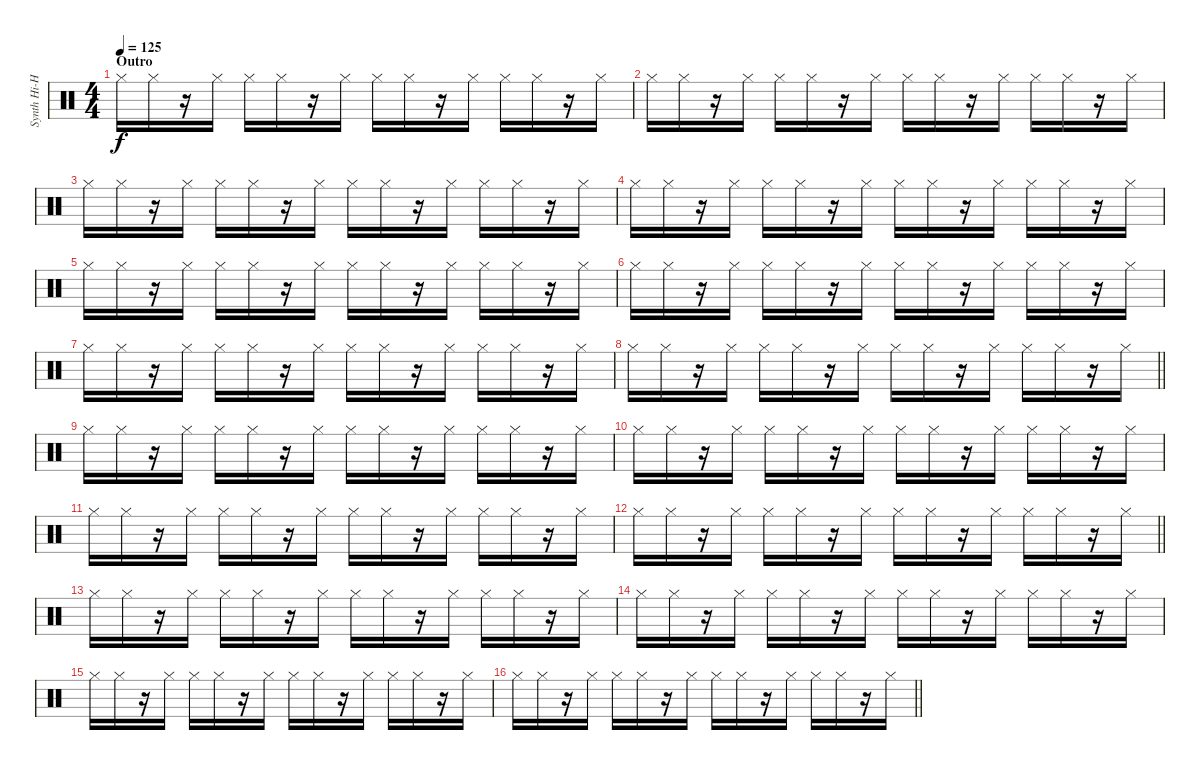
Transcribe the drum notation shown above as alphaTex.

\track ("Synth Hi-Hat (Gillian Gilbert)" "Synth Hi-H") {instrument percussion}
\staff {score}
\articulation defaults
\ts (4 4)
\section ("" "Outro")
\tempo 125
\clef neutral
\ks c "Hi-Hat (closed)".16{dy f} "Hi-Hat (closed)".16
r.16 "Hi-Hat (closed)".16 "Hi-Hat (closed)".16 "Hi-Hat (closed)".16 r.16 "Hi-Hat (closed)".16 "Hi-Hat (closed)".16 "Hi-Hat (closed)".16 r.16 "Hi-Hat (closed)".16 "Hi-Hat (closed)".16 "Hi-Hat (closed)".16 r.16 "Hi-Hat (closed)".16 |
"Hi-Hat (closed)".16 "Hi-Hat (closed)".16 r.16 "Hi-Hat (closed)".16 "Hi-Hat (closed)".16 "Hi-Hat (closed)".16 r.16 "Hi-Hat (closed)".16 "Hi-Hat (closed)".16 "Hi-Hat (closed)".16 r.16 "Hi-Hat (closed)".16 "Hi-Hat (closed)".16 "Hi-Hat (closed)".16 r.16 "Hi-Hat (closed)".16 |
"Hi-Hat (closed)".16 "Hi-Hat (closed)".16 r.16 "Hi-Hat (closed)".16 "Hi-Hat (closed)".16 "Hi-Hat (closed)".16 r.16 "Hi-Hat (closed)".16 "Hi-Hat (closed)".16 "Hi-Hat (closed)".16 r.16 "Hi-Hat (closed)".16 "Hi-Hat (closed)".16 "Hi-Hat (closed)".16 r.16 "Hi-Hat (closed)".16 |
"Hi-Hat (closed)".16 "Hi-Hat (closed)".16 r.16 "Hi-Hat (closed)".16 "Hi-Hat (closed)".16 "Hi-Hat (closed)".16 r.16 "Hi-Hat (closed)".16 "Hi-Hat (closed)".16 "Hi-Hat (closed)".16 r.16 "Hi-Hat (closed)".16 "Hi-Hat (closed)".16 "Hi-Hat (closed)".16 r.16 "Hi-Hat (closed)".16 |
"Hi-Hat (closed)".16 "Hi-Hat (closed)".16 r.16 "Hi-Hat (closed)".16 "Hi-Hat (closed)".16 "Hi-Hat (closed)".16 r.16 "Hi-Hat (closed)".16 "Hi-Hat (closed)".16 "Hi-Hat (closed)".16 r.16 "Hi-Hat (closed)".16 "Hi-Hat (closed)".16 "Hi-Hat (closed)".16 r.16 "Hi-Hat (closed)".16 |
"Hi-Hat (closed)".16 "Hi-Hat (closed)".16 r.16 "Hi-Hat (closed)".16 "Hi-Hat (closed)".16 "Hi-Hat (closed)".16 r.16 "Hi-Hat (closed)".16 "Hi-Hat (closed)".16 "Hi-Hat (closed)".16 r.16 "Hi-Hat (closed)".16 "Hi-Hat (closed)".16 "Hi-Hat (closed)".16 r.16 "Hi-Hat (closed)".16 |
"Hi-Hat (closed)".16 "Hi-Hat (closed)".16 r.16 "Hi-Hat (closed)".16 "Hi-Hat (closed)".16 "Hi-Hat (closed)".16 r.16 "Hi-Hat (closed)".16 "Hi-Hat (closed)".16 "Hi-Hat (closed)".16 r.16 "Hi-Hat (closed)".16 "Hi-Hat (closed)".16 "Hi-Hat (closed)".16 r.16 "Hi-Hat (closed)".16 |
\barLineRight lightlight "Hi-Hat (closed)".16 "Hi-Hat (closed)".16
r.16 "Hi-Hat (closed)".16 "Hi-Hat (closed)".16 "Hi-Hat (closed)".16 r.16 "Hi-Hat (closed)".16 "Hi-Hat (closed)".16 "Hi-Hat (closed)".16 r.16 "Hi-Hat (closed)".16 "Hi-Hat (closed)".16 "Hi-Hat (closed)".16 r.16 "Hi-Hat (closed)".16 |
"Hi-Hat (closed)".16 "Hi-Hat (closed)".16 r.16 "Hi-Hat (closed)".16 "Hi-Hat (closed)".16 "Hi-Hat (closed)".16 r.16 "Hi-Hat (closed)".16 "Hi-Hat (closed)".16 "Hi-Hat (closed)".16 r.16 "Hi-Hat (closed)".16 "Hi-Hat (closed)".16 "Hi-Hat (closed)".16 r.16 "Hi-Hat (closed)".16 |
"Hi-Hat (closed)".16 "Hi-Hat (closed)".16 r.16 "Hi-Hat (closed)".16 "Hi-Hat (closed)".16 "Hi-Hat (closed)".16 r.16 "Hi-Hat (closed)".16 "Hi-Hat (closed)".16 "Hi-Hat (closed)".16 r.16 "Hi-Hat (closed)".16 "Hi-Hat (closed)".16 "Hi-Hat (closed)".16 r.16 "Hi-Hat (closed)".16 |
"Hi-Hat (closed)".16 "Hi-Hat (closed)".16 r.16 "Hi-Hat (closed)".16 "Hi-Hat (closed)".16 "Hi-Hat (closed)".16 r.16 "Hi-Hat (closed)".16 "Hi-Hat (closed)".16 "Hi-Hat (closed)".16 r.16 "Hi-Hat (closed)".16 "Hi-Hat (closed)".16 "Hi-Hat (closed)".16 r.16 "Hi-Hat (closed)".16 |
\barLineRight lightlight "Hi-Hat (closed)".16 "Hi-Hat (closed)".16
r.16 "Hi-Hat (closed)".16 "Hi-Hat (closed)".16 "Hi-Hat (closed)".16 r.16 "Hi-Hat (closed)".16 "Hi-Hat (closed)".16 "Hi-Hat (closed)".16 r.16 "Hi-Hat (closed)".16 "Hi-Hat (closed)".16 "Hi-Hat (closed)".16 r.16 "Hi-Hat (closed)".16 |
"Hi-Hat (closed)".16 "Hi-Hat (closed)".16 r.16 "Hi-Hat (closed)".16 "Hi-Hat (closed)".16 "Hi-Hat (closed)".16 r.16 "Hi-Hat (closed)".16 "Hi-Hat (closed)".16 "Hi-Hat (closed)".16 r.16 "Hi-Hat (closed)".16 "Hi-Hat (closed)".16 "Hi-Hat (closed)".16 r.16 "Hi-Hat (closed)".16 |
"Hi-Hat (closed)".16 "Hi-Hat (closed)".16 r.16 "Hi-Hat (closed)".16 "Hi-Hat (closed)".16 "Hi-Hat (closed)".16 r.16 "Hi-Hat (closed)".16 "Hi-Hat (closed)".16 "Hi-Hat (closed)".16 r.16 "Hi-Hat (closed)".16 "Hi-Hat (closed)".16 "Hi-Hat (closed)".16 r.16 "Hi-Hat (closed)".16 |
"Hi-Hat (closed)".16 "Hi-Hat (closed)".16 r.16 "Hi-Hat (closed)".16 "Hi-Hat (closed)".16 "Hi-Hat (closed)".16 r.16 "Hi-Hat (closed)".16 "Hi-Hat (closed)".16 "Hi-Hat (closed)".16 r.16 "Hi-Hat (closed)".16 "Hi-Hat (closed)".16 "Hi-Hat (closed)".16 r.16 "Hi-Hat (closed)".16 |
\barLineRight lightlight "Hi-Hat (closed)".16 "Hi-Hat (closed)".16
r.16 "Hi-Hat (closed)".16 "Hi-Hat (closed)".16 "Hi-Hat (closed)".16 r.16 "Hi-Hat (closed)".16 "Hi-Hat (closed)".16 "Hi-Hat (closed)".16 r.16 "Hi-Hat (closed)".16 "Hi-Hat (closed)".16 "Hi-Hat (closed)".16 r.16 "Hi-Hat (closed)".16
